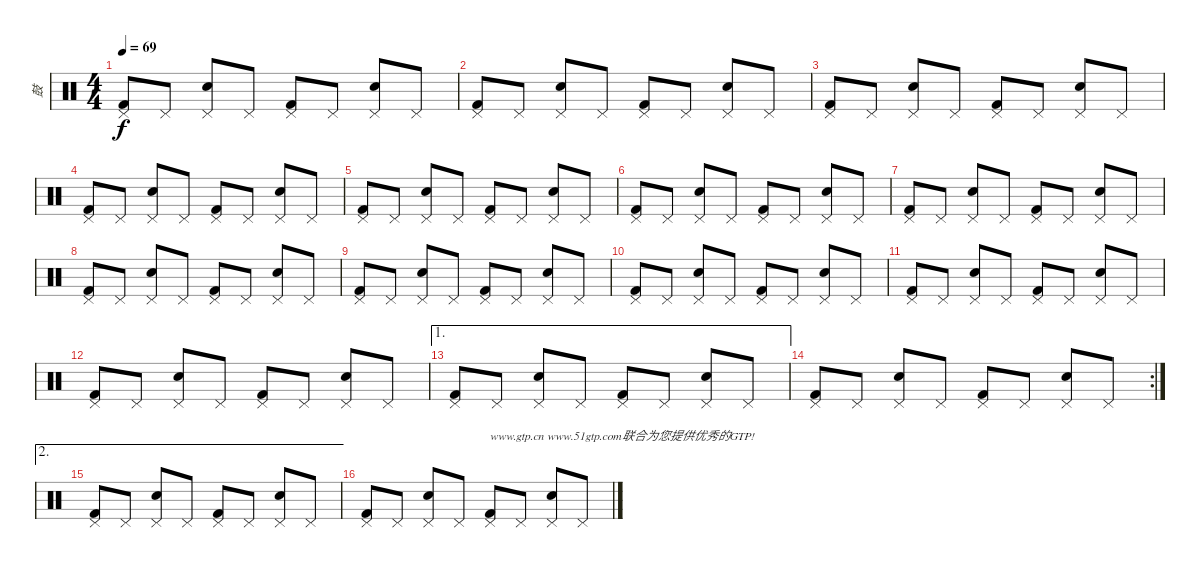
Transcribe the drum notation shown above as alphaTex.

\track ("鼓" "鼓") {instrument percussion}
\staff {score}
\articulation defaults
\ts (4 4)
\tempo 69
\clef neutral
\ks c
("Pedal Hi-Hat (hit)" "Kick (hit) 2").8{dy f} "Pedal Hi-Hat (hit)".8 ("Pedal Hi-Hat (hit)" "Electric Snare (hit)").8 "Pedal Hi-Hat (hit)".8 ("Pedal Hi-Hat (hit)" "Kick (hit) 2").8 "Pedal Hi-Hat (hit)".8 ("Pedal Hi-Hat (hit)" "Electric Snare (hit)").8 "Pedal Hi-Hat (hit)".8 |
("Pedal Hi-Hat (hit)" "Kick (hit) 2").8 "Pedal Hi-Hat (hit)".8 ("Pedal Hi-Hat (hit)" "Electric Snare (hit)").8 "Pedal Hi-Hat (hit)".8 ("Pedal Hi-Hat (hit)" "Kick (hit) 2").8 "Pedal Hi-Hat (hit)".8 ("Pedal Hi-Hat (hit)" "Electric Snare (hit)").8 "Pedal Hi-Hat (hit)".8 |
("Pedal Hi-Hat (hit)" "Kick (hit) 2").8 "Pedal Hi-Hat (hit)".8 ("Pedal Hi-Hat (hit)" "Electric Snare (hit)").8 "Pedal Hi-Hat (hit)".8 ("Pedal Hi-Hat (hit)" "Kick (hit) 2").8 "Pedal Hi-Hat (hit)".8 ("Pedal Hi-Hat (hit)" "Electric Snare (hit)").8 "Pedal Hi-Hat (hit)".8 |
("Pedal Hi-Hat (hit)" "Kick (hit) 2").8 "Pedal Hi-Hat (hit)".8 ("Pedal Hi-Hat (hit)" "Electric Snare (hit)").8 "Pedal Hi-Hat (hit)".8 ("Pedal Hi-Hat (hit)" "Kick (hit) 2").8 "Pedal Hi-Hat (hit)".8 ("Pedal Hi-Hat (hit)" "Electric Snare (hit)").8 "Pedal Hi-Hat (hit)".8 |
("Pedal Hi-Hat (hit)" "Kick (hit) 2").8 "Pedal Hi-Hat (hit)".8 ("Pedal Hi-Hat (hit)" "Electric Snare (hit)").8 "Pedal Hi-Hat (hit)".8 ("Pedal Hi-Hat (hit)" "Kick (hit) 2").8 "Pedal Hi-Hat (hit)".8 ("Pedal Hi-Hat (hit)" "Electric Snare (hit)").8 "Pedal Hi-Hat (hit)".8 |
("Pedal Hi-Hat (hit)" "Kick (hit) 2").8 "Pedal Hi-Hat (hit)".8 ("Pedal Hi-Hat (hit)" "Electric Snare (hit)").8 "Pedal Hi-Hat (hit)".8 ("Pedal Hi-Hat (hit)" "Kick (hit) 2").8 "Pedal Hi-Hat (hit)".8 ("Pedal Hi-Hat (hit)" "Electric Snare (hit)").8 "Pedal Hi-Hat (hit)".8 |
("Pedal Hi-Hat (hit)" "Kick (hit) 2").8 "Pedal Hi-Hat (hit)".8 ("Pedal Hi-Hat (hit)" "Electric Snare (hit)").8 "Pedal Hi-Hat (hit)".8 ("Pedal Hi-Hat (hit)" "Kick (hit) 2").8 "Pedal Hi-Hat (hit)".8 ("Pedal Hi-Hat (hit)" "Electric Snare (hit)").8 "Pedal Hi-Hat (hit)".8 |
("Pedal Hi-Hat (hit)" "Kick (hit) 2").8 "Pedal Hi-Hat (hit)".8 ("Pedal Hi-Hat (hit)" "Electric Snare (hit)").8 "Pedal Hi-Hat (hit)".8 ("Pedal Hi-Hat (hit)" "Kick (hit) 2").8 "Pedal Hi-Hat (hit)".8 ("Pedal Hi-Hat (hit)" "Electric Snare (hit)").8 "Pedal Hi-Hat (hit)".8 |
("Pedal Hi-Hat (hit)" "Kick (hit) 2").8 "Pedal Hi-Hat (hit)".8 ("Pedal Hi-Hat (hit)" "Electric Snare (hit)").8 "Pedal Hi-Hat (hit)".8 ("Pedal Hi-Hat (hit)" "Kick (hit) 2").8 "Pedal Hi-Hat (hit)".8 ("Pedal Hi-Hat (hit)" "Electric Snare (hit)").8 "Pedal Hi-Hat (hit)".8 |
("Pedal Hi-Hat (hit)" "Kick (hit) 2").8 "Pedal Hi-Hat (hit)".8 ("Pedal Hi-Hat (hit)" "Electric Snare (hit)").8 "Pedal Hi-Hat (hit)".8 ("Pedal Hi-Hat (hit)" "Kick (hit) 2").8 "Pedal Hi-Hat (hit)".8 ("Pedal Hi-Hat (hit)" "Electric Snare (hit)").8 "Pedal Hi-Hat (hit)".8 |
("Pedal Hi-Hat (hit)" "Kick (hit) 2").8 "Pedal Hi-Hat (hit)".8 ("Pedal Hi-Hat (hit)" "Electric Snare (hit)").8 "Pedal Hi-Hat (hit)".8 ("Pedal Hi-Hat (hit)" "Kick (hit) 2").8 "Pedal Hi-Hat (hit)".8 ("Pedal Hi-Hat (hit)" "Electric Snare (hit)").8 "Pedal Hi-Hat (hit)".8 |
("Pedal Hi-Hat (hit)" "Kick (hit) 2").8 "Pedal Hi-Hat (hit)".8 ("Pedal Hi-Hat (hit)" "Electric Snare (hit)").8 "Pedal Hi-Hat (hit)".8 ("Pedal Hi-Hat (hit)" "Kick (hit) 2").8 "Pedal Hi-Hat (hit)".8 ("Pedal Hi-Hat (hit)" "Electric Snare (hit)").8 "Pedal Hi-Hat (hit)".8 |
\ae 1
("Pedal Hi-Hat (hit)" "Kick (hit) 2").8 "Pedal Hi-Hat (hit)".8 ("Pedal Hi-Hat (hit)" "Electric Snare (hit)").8 "Pedal Hi-Hat (hit)".8 ("Pedal Hi-Hat (hit)" "Kick (hit) 2").8 "Pedal Hi-Hat (hit)".8 ("Pedal Hi-Hat (hit)" "Electric Snare (hit)").8 "Pedal Hi-Hat (hit)".8 |
\rc 2
("Pedal Hi-Hat (hit)" "Kick (hit) 2").8 "Pedal Hi-Hat (hit)".8 ("Pedal Hi-Hat (hit)" "Electric Snare (hit)").8 "Pedal Hi-Hat (hit)".8 ("Pedal Hi-Hat (hit)" "Kick (hit) 2").8 "Pedal Hi-Hat (hit)".8 ("Pedal Hi-Hat (hit)" "Electric Snare (hit)").8 "Pedal Hi-Hat (hit)".8 |
\ae 2
("Pedal Hi-Hat (hit)" "Kick (hit) 2").8 "Pedal Hi-Hat (hit)".8 ("Pedal Hi-Hat (hit)" "Electric Snare (hit)").8 "Pedal Hi-Hat (hit)".8 ("Pedal Hi-Hat (hit)" "Kick (hit) 2").8 "Pedal Hi-Hat (hit)".8 ("Pedal Hi-Hat (hit)" "Electric Snare (hit)").8 "Pedal Hi-Hat (hit)".8 |
("Pedal Hi-Hat (hit)" "Kick (hit) 2").8 "Pedal Hi-Hat (hit)".8 ("Pedal Hi-Hat (hit)" "Electric Snare (hit)").8 "Pedal Hi-Hat (hit)".8 ("Pedal Hi-Hat (hit)" "Kick (hit) 2").8{txt "www.gtp.cn www.51gtp.com联合为您提供优秀的GTP!"} "Pedal Hi-Hat (hit)".8 ("Pedal Hi-Hat (hit)" "Electric Snare (hit)").8 "Pedal Hi-Hat (hit)".8
